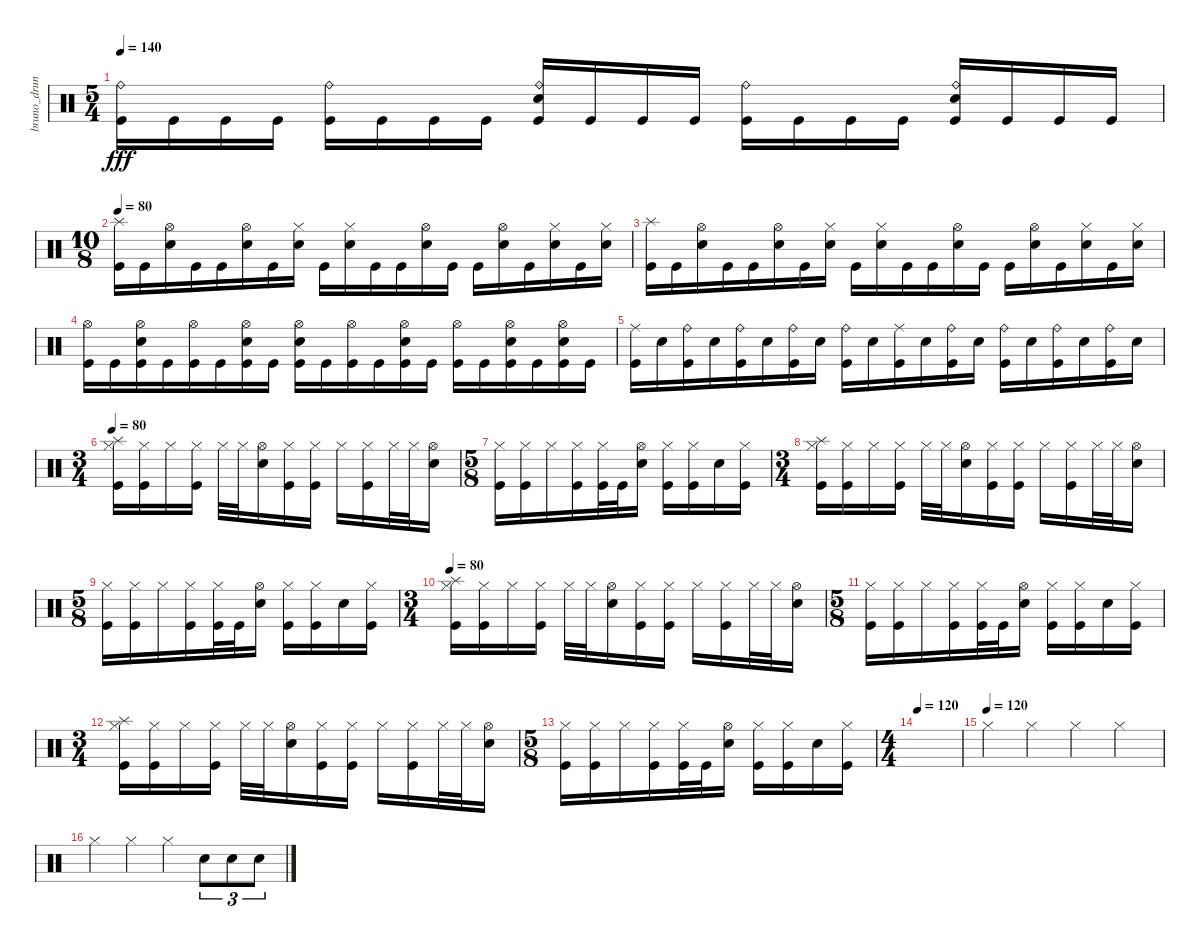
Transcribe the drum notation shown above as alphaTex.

\track ("bruno_druns" "bruno_drun") {instrument percussion}
\staff {score}
\articulation defaults
\ts (5 4)
\tempo 140
\clef neutral
\ks c
("Kick (hit)" "Ride (bell)").16{dy fff} "Kick (hit)".16 "Kick (hit)".16 "Kick (hit)".16 ("Kick (hit)" "Ride (bell)").16 "Kick (hit)".16 "Kick (hit)".16 "Kick (hit)".16 ("Kick (hit)" "Electric Snare (hit)" "Ride (bell)").16 "Kick (hit)".16 "Kick (hit)".16 "Kick (hit)".16 ("Kick (hit)" "Ride (bell)").16 "Kick (hit)".16 "Kick (hit)".16 "Kick (hit)".16 ("Kick (hit)" "Electric Snare (hit)" "Ride (bell)").16 "Kick (hit)".16 "Kick (hit)".16 "Kick (hit)".16 |
\ts (10 8)
\tempo 80
("Kick (hit)" "Splash (hit)").16 "Kick (hit)".16 ("Electric Snare (hit)" "Hi-Hat (open)").16 "Kick (hit)".16 "Kick (hit)".16 ("Electric Snare (hit)" "Hi-Hat (open)").16 "Kick (hit)".16 ("Electric Snare (hit)" "Hi-Hat (closed)").16 "Kick (hit)".16 ("Electric Snare (hit)" "Hi-Hat (closed)").16 "Kick (hit)".16 "Kick (hit)".16 ("Electric Snare (hit)" "Hi-Hat (open)").16 "Kick (hit)".16 "Kick (hit)".16 ("Electric Snare (hit)" "Hi-Hat (open)").16 "Kick (hit)".16 ("Electric Snare (hit)" "Hi-Hat (closed)").16 "Kick (hit)".16 ("Electric Snare (hit)" "Hi-Hat (closed)").16 |
("Kick (hit)" "Splash (hit)").16 "Kick (hit)".16 ("Electric Snare (hit)" "Hi-Hat (open)").16 "Kick (hit)".16 "Kick (hit)".16 ("Electric Snare (hit)" "Hi-Hat (open)").16 "Kick (hit)".16 ("Electric Snare (hit)" "Hi-Hat (closed)").16 "Kick (hit)".16 ("Electric Snare (hit)" "Hi-Hat (closed)").16 "Kick (hit)".16 "Kick (hit)".16 ("Electric Snare (hit)" "Hi-Hat (open)").16 "Kick (hit)".16 "Kick (hit)".16 ("Electric Snare (hit)" "Hi-Hat (open)").16 "Kick (hit)".16 ("Electric Snare (hit)" "Hi-Hat (closed)").16 "Kick (hit)".16 ("Electric Snare (hit)" "Hi-Hat (closed)").16 |
("Kick (hit)" "Hi-Hat (open)").16 "Kick (hit)".16 ("Kick (hit)" "Electric Snare (hit)" "Hi-Hat (open)").16 "Kick (hit)".16 ("Kick (hit)" "Hi-Hat (open)").16 "Kick (hit)".16 ("Kick (hit)" "Electric Snare (hit)" "Hi-Hat (open)").16 "Kick (hit)".16 ("Kick (hit)" "Electric Snare (hit)" "Hi-Hat (open)").16 "Kick (hit)".16 ("Kick (hit)" "Hi-Hat (open)").16 "Kick (hit)".16 ("Kick (hit)" "Electric Snare (hit)" "Hi-Hat (open)").16 "Kick (hit)".16 ("Kick (hit)" "Hi-Hat (open)").16 "Kick (hit)".16 ("Kick (hit)" "Electric Snare (hit)" "Hi-Hat (open)").16 "Kick (hit)".16 ("Kick (hit)" "Electric Snare (hit)" "Hi-Hat (open)").16 "Kick (hit)".16 |
("Kick (hit)" "Ride (middle)").16 "Electric Snare (hit)".16 ("Kick (hit)" "Ride (bell)").16 "Electric Snare (hit)".16 ("Kick (hit)" "Ride (bell)").16 "Electric Snare (hit)".16 ("Kick (hit)" "Ride (bell)").16 "Electric Snare (hit)".16 ("Kick (hit)" "Ride (bell)").16 "Electric Snare (hit)".16 ("Kick (hit)" "Ride (middle)").16 "Electric Snare (hit)".16 ("Kick (hit)" "Ride (bell)").16 "Electric Snare (hit)".16 ("Kick (hit)" "Ride (bell)").16 "Electric Snare (hit)".16 ("Kick (hit)" "Ride (bell)").16 "Electric Snare (hit)".16 ("Kick (hit)" "Ride (bell)").16 "Electric Snare (hit)".16 |
\ts (3 4)
\tempo 80
("Kick (hit)" "Hi-Hat (closed)" "Splash (hit)").16 ("Kick (hit)" "Hi-Hat (closed)").16 "Hi-Hat (closed)".16 ("Kick (hit)" "Hi-Hat (closed)").16 "Hi-Hat (closed)".32 "Hi-Hat (closed)".32 ("Electric Snare (hit)" "Hi-Hat (open)").16 ("Kick (hit)" "Hi-Hat (closed)").16 ("Kick (hit)" "Hi-Hat (closed)").16 "Hi-Hat (closed)".16 ("Kick (hit)" "Hi-Hat (closed)").16 "Hi-Hat (closed)".32 "Hi-Hat (closed)".32 ("Electric Snare (hit)" "Hi-Hat (open)").16 |
\ts (5 8)
("Kick (hit)" "Hi-Hat (closed)").16 ("Kick (hit)" "Hi-Hat (closed)").16 "Hi-Hat (closed)".16 ("Kick (hit)" "Hi-Hat (closed)").16 ("Kick (hit)" "Hi-Hat (closed)").32 "Kick (hit)".32 ("Electric Snare (hit)" "Hi-Hat (open)").16 ("Kick (hit)" "Hi-Hat (closed)").16 ("Kick (hit)" "Hi-Hat (closed)").16 "Electric Snare (hit)".16 ("Kick (hit)" "Hi-Hat (closed)").16 |
\ts (3 4)
("Kick (hit)" "Hi-Hat (closed)" "Splash (hit)").16 ("Kick (hit)" "Hi-Hat (closed)").16 "Hi-Hat (closed)".16 ("Kick (hit)" "Hi-Hat (closed)").16 "Hi-Hat (closed)".32 "Hi-Hat (closed)".32 ("Electric Snare (hit)" "Hi-Hat (open)").16 ("Kick (hit)" "Hi-Hat (closed)").16 ("Kick (hit)" "Hi-Hat (closed)").16 "Hi-Hat (closed)".16 ("Kick (hit)" "Hi-Hat (closed)").16 "Hi-Hat (closed)".32 "Hi-Hat (closed)".32 ("Electric Snare (hit)" "Hi-Hat (open)").16 |
\ts (5 8)
("Kick (hit)" "Hi-Hat (closed)").16 ("Kick (hit)" "Hi-Hat (closed)").16 "Hi-Hat (closed)".16 ("Kick (hit)" "Hi-Hat (closed)").16 ("Kick (hit)" "Hi-Hat (closed)").32 "Kick (hit)".32 ("Electric Snare (hit)" "Hi-Hat (open)").16 ("Kick (hit)" "Hi-Hat (closed)").16 ("Kick (hit)" "Hi-Hat (closed)").16 "Electric Snare (hit)".16 ("Kick (hit)" "Hi-Hat (closed)").16 |
\ts (3 4)
\tempo 80
("Kick (hit)" "Hi-Hat (closed)" "Splash (hit)").16 ("Kick (hit)" "Hi-Hat (closed)").16 "Hi-Hat (closed)".16 ("Kick (hit)" "Hi-Hat (closed)").16 "Hi-Hat (closed)".32 "Hi-Hat (closed)".32 ("Electric Snare (hit)" "Hi-Hat (open)").16 ("Kick (hit)" "Hi-Hat (closed)").16 ("Kick (hit)" "Hi-Hat (closed)").16 "Hi-Hat (closed)".16 ("Kick (hit)" "Hi-Hat (closed)").16 "Hi-Hat (closed)".32 "Hi-Hat (closed)".32 ("Electric Snare (hit)" "Hi-Hat (open)").16 |
\ts (5 8)
("Kick (hit)" "Hi-Hat (closed)").16 ("Kick (hit)" "Hi-Hat (closed)").16 "Hi-Hat (closed)".16 ("Kick (hit)" "Hi-Hat (closed)").16 ("Kick (hit)" "Hi-Hat (closed)").32 "Kick (hit)".32 ("Electric Snare (hit)" "Hi-Hat (open)").16 ("Kick (hit)" "Hi-Hat (closed)").16 ("Kick (hit)" "Hi-Hat (closed)").16 "Electric Snare (hit)".16 ("Kick (hit)" "Hi-Hat (closed)").16 |
\ts (3 4)
("Kick (hit)" "Hi-Hat (closed)" "Splash (hit)").16 ("Kick (hit)" "Hi-Hat (closed)").16 "Hi-Hat (closed)".16 ("Kick (hit)" "Hi-Hat (closed)").16 "Hi-Hat (closed)".32 "Hi-Hat (closed)".32 ("Electric Snare (hit)" "Hi-Hat (open)").16 ("Kick (hit)" "Hi-Hat (closed)").16 ("Kick (hit)" "Hi-Hat (closed)").16 "Hi-Hat (closed)".16 ("Kick (hit)" "Hi-Hat (closed)").16 "Hi-Hat (closed)".32 "Hi-Hat (closed)".32 ("Electric Snare (hit)" "Hi-Hat (open)").16 |
\ts (5 8)
("Kick (hit)" "Hi-Hat (closed)").16 ("Kick (hit)" "Hi-Hat (closed)").16 "Hi-Hat (closed)".16 ("Kick (hit)" "Hi-Hat (closed)").16 ("Kick (hit)" "Hi-Hat (closed)").32 "Kick (hit)".32 ("Electric Snare (hit)" "Hi-Hat (open)").16 ("Kick (hit)" "Hi-Hat (closed)").16 ("Kick (hit)" "Hi-Hat (closed)").16 "Electric Snare (hit)".16 ("Kick (hit)" "Hi-Hat (closed)").16 |
\ts (4 4)
\tempo 120
|
\tempo (120)
"Hi-Hat (closed)".4 "Hi-Hat (closed)".4 "Hi-Hat (closed)".4 "Hi-Hat (closed)".4 |
"Hi-Hat (closed)".4 "Hi-Hat (closed)".4 "Hi-Hat (closed)".4 "Electric Snare (hit)".8{tu (3 2)} "Electric Snare (hit)".8{tu (3 2)} "Electric Snare (hit)".8{tu (3 2)}
